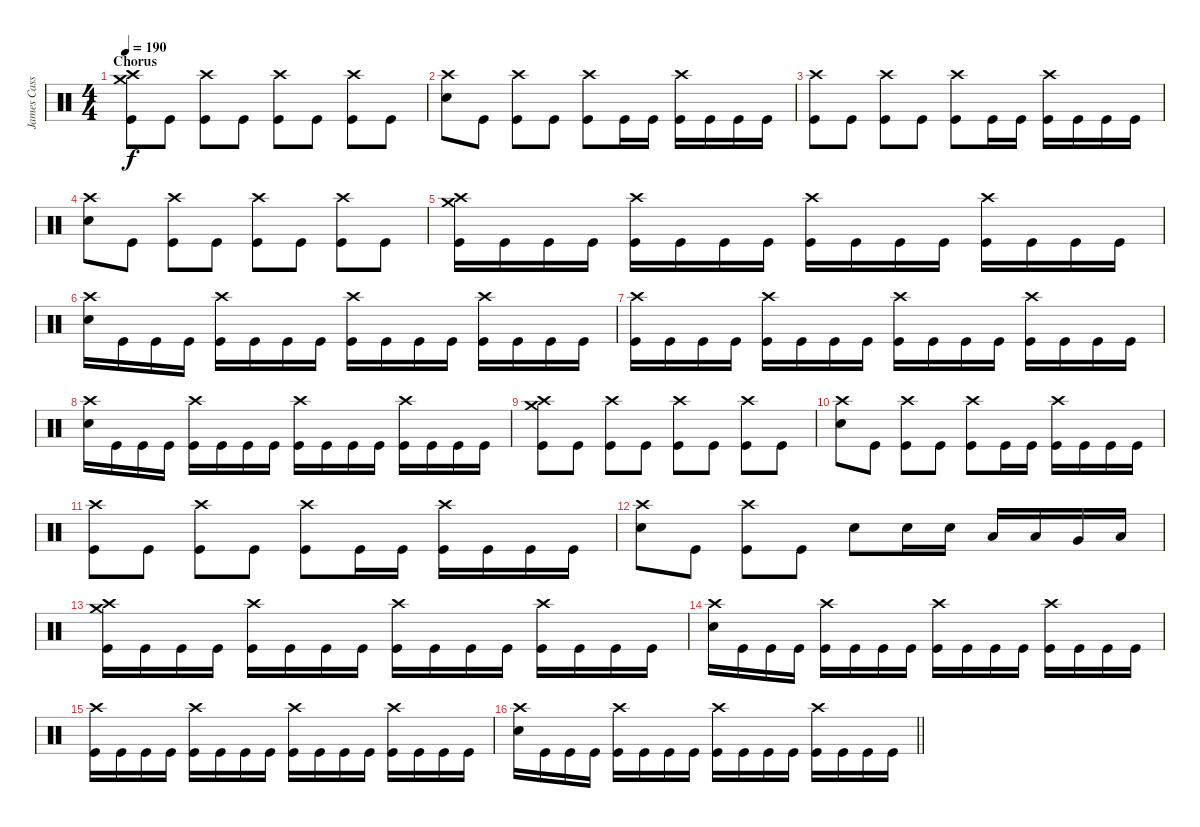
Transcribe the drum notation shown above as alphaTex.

\track ("James Cassells" "James Cass") {instrument percussion}
\staff {score}
\articulation defaults
\ts (4 4)
\section ("" "Chorus")
\tempo 190
\clef neutral
\ks c
("Crash high (hit)" "Crash medium (hit)" "Kick (hit)").8{dy f} "Kick (hit)".8 ("Crash high (hit)" "Kick (hit)").8 "Kick (hit)".8 ("Crash high (hit)" "Kick (hit)").8 "Kick (hit)".8 ("Crash high (hit)" "Kick (hit)").8 "Kick (hit)".8 |
("Crash high (hit)" "Snare (hit) 2").8 "Kick (hit)".8 ("Crash high (hit)" "Kick (hit)").8 "Kick (hit)".8 ("Crash high (hit)" "Kick (hit)").8 "Kick (hit)".16 "Kick (hit)".16 ("Crash high (hit)" "Kick (hit)").16 "Kick (hit)".16 "Kick (hit)".16 "Kick (hit)".16 |
("Crash high (hit)" "Kick (hit)").8 "Kick (hit)".8 ("Crash high (hit)" "Kick (hit)").8 "Kick (hit)".8 ("Crash high (hit)" "Kick (hit)").8 "Kick (hit)".16 "Kick (hit)".16 ("Crash high (hit)" "Kick (hit)").16 "Kick (hit)".16 "Kick (hit)".16 "Kick (hit)".16 |
("Crash high (hit)" "Snare (hit) 2").8 "Kick (hit)".8 ("Crash high (hit)" "Kick (hit)").8 "Kick (hit)".8 ("Crash high (hit)" "Kick (hit)").8 "Kick (hit)".8 ("Crash high (hit)" "Kick (hit)").8 "Kick (hit)".8 |
("Crash high (hit)" "Crash medium (hit)" "Kick (hit)").16 "Kick (hit)".16 "Kick (hit)".16 "Kick (hit)".16 ("Crash high (hit)" "Kick (hit)").16 "Kick (hit)".16 "Kick (hit)".16 "Kick (hit)".16 ("Crash high (hit)" "Kick (hit)").16 "Kick (hit)".16 "Kick (hit)".16 "Kick (hit)".16 ("Crash high (hit)" "Kick (hit)").16 "Kick (hit)".16 "Kick (hit)".16 "Kick (hit)".16 |
("Crash high (hit)" "Snare (hit) 2").16 "Kick (hit)".16 "Kick (hit)".16 "Kick (hit)".16 ("Crash high (hit)" "Kick (hit)").16 "Kick (hit)".16 "Kick (hit)".16 "Kick (hit)".16 ("Crash high (hit)" "Kick (hit)").16 "Kick (hit)".16 "Kick (hit)".16 "Kick (hit)".16 ("Crash high (hit)" "Kick (hit)").16 "Kick (hit)".16 "Kick (hit)".16 "Kick (hit)".16 |
("Crash high (hit)" "Kick (hit)").16 "Kick (hit)".16 "Kick (hit)".16 "Kick (hit)".16 ("Crash high (hit)" "Kick (hit)").16 "Kick (hit)".16 "Kick (hit)".16 "Kick (hit)".16 ("Crash high (hit)" "Kick (hit)").16 "Kick (hit)".16 "Kick (hit)".16 "Kick (hit)".16 ("Crash high (hit)" "Kick (hit)").16 "Kick (hit)".16 "Kick (hit)".16 "Kick (hit)".16 |
("Crash high (hit)" "Snare (hit) 2").16 "Kick (hit)".16 "Kick (hit)".16 "Kick (hit)".16 ("Crash high (hit)" "Kick (hit)").16 "Kick (hit)".16 "Kick (hit)".16 "Kick (hit)".16 ("Crash high (hit)" "Kick (hit)").16 "Kick (hit)".16 "Kick (hit)".16 "Kick (hit)".16 ("Crash high (hit)" "Kick (hit)").16 "Kick (hit)".16 "Kick (hit)".16 "Kick (hit)".16 |
("Crash high (hit)" "Crash medium (hit)" "Kick (hit)").8 "Kick (hit)".8 ("Crash high (hit)" "Kick (hit)").8 "Kick (hit)".8 ("Crash high (hit)" "Kick (hit)").8 "Kick (hit)".8 ("Crash high (hit)" "Kick (hit)").8 "Kick (hit)".8 |
("Crash high (hit)" "Snare (hit) 2").8 "Kick (hit)".8 ("Crash high (hit)" "Kick (hit)").8 "Kick (hit)".8 ("Crash high (hit)" "Kick (hit)").8 "Kick (hit)".16 "Kick (hit)".16 ("Crash high (hit)" "Kick (hit)").16 "Kick (hit)".16 "Kick (hit)".16 "Kick (hit)".16 |
("Crash high (hit)" "Kick (hit)").8 "Kick (hit)".8 ("Crash high (hit)" "Kick (hit)").8 "Kick (hit)".8 ("Crash high (hit)" "Kick (hit)").8 "Kick (hit)".16 "Kick (hit)".16 ("Crash high (hit)" "Kick (hit)").16 "Kick (hit)".16 "Kick (hit)".16 "Kick (hit)".16 |
("Crash high (hit)" "Snare (hit) 2").8 "Kick (hit)".8 ("Crash high (hit)" "Kick (hit)").8 "Kick (hit)".8 "Snare (hit) 2".8 "Snare (hit) 2".16 "Snare (hit) 2".16 "Low Tom (hit)".16 "Low Tom (hit)".16 "Very Low Tom (hit)".16 "Low Floor Tom (hit)".16 |
("Crash high (hit)" "Crash medium (hit)" "Kick (hit)").16 "Kick (hit)".16 "Kick (hit)".16 "Kick (hit)".16 ("Crash high (hit)" "Kick (hit)").16 "Kick (hit)".16 "Kick (hit)".16 "Kick (hit)".16 ("Crash high (hit)" "Kick (hit)").16 "Kick (hit)".16 "Kick (hit)".16 "Kick (hit)".16 ("Crash high (hit)" "Kick (hit)").16 "Kick (hit)".16 "Kick (hit)".16 "Kick (hit)".16 |
("Crash high (hit)" "Snare (hit) 2").16 "Kick (hit)".16 "Kick (hit)".16 "Kick (hit)".16 ("Crash high (hit)" "Kick (hit)").16 "Kick (hit)".16 "Kick (hit)".16 "Kick (hit)".16 ("Crash high (hit)" "Kick (hit)").16 "Kick (hit)".16 "Kick (hit)".16 "Kick (hit)".16 ("Crash high (hit)" "Kick (hit)").16 "Kick (hit)".16 "Kick (hit)".16 "Kick (hit)".16 |
("Crash high (hit)" "Kick (hit)").16 "Kick (hit)".16 "Kick (hit)".16 "Kick (hit)".16 ("Crash high (hit)" "Kick (hit)").16 "Kick (hit)".16 "Kick (hit)".16 "Kick (hit)".16 ("Crash high (hit)" "Kick (hit)").16 "Kick (hit)".16 "Kick (hit)".16 "Kick (hit)".16 ("Crash high (hit)" "Kick (hit)").16 "Kick (hit)".16 "Kick (hit)".16 "Kick (hit)".16 |
\barLineRight lightlight
("Crash high (hit)" "Snare (hit) 2").16 "Kick (hit)".16 "Kick (hit)".16 "Kick (hit)".16 ("Crash high (hit)" "Kick (hit)").16 "Kick (hit)".16 "Kick (hit)".16 "Kick (hit)".16 ("Crash high (hit)" "Kick (hit)").16 "Kick (hit)".16 "Kick (hit)".16 "Kick (hit)".16 ("Crash high (hit)" "Kick (hit)").16 "Kick (hit)".16 "Kick (hit)".16 "Kick (hit)".16
